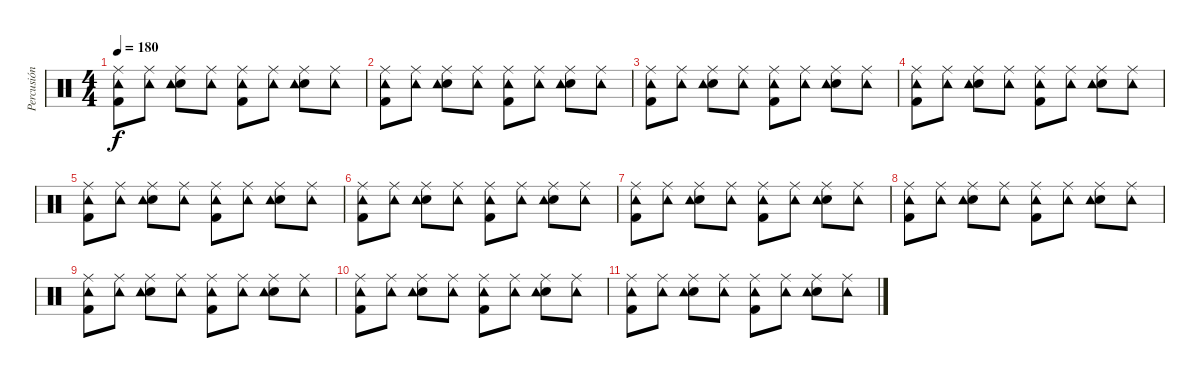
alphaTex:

\track ("Percusión" "Percusión") {instrument percussion}
\staff {score}
\articulation defaults
\ts (4 4)
\tempo 180
\clef neutral
\ks c
("Kick (hit) 2" "Ride (middle)" "Tambourine (hit)").8{dy f} ("Ride (middle)" "Tambourine (hit)").8 ("Electric Snare (hit)" "Ride (middle)" "Tambourine (hit)").8 ("Ride (middle)" "Tambourine (hit)").8 ("Kick (hit) 2" "Ride (middle)" "Tambourine (hit)").8 ("Ride (middle)" "Tambourine (hit)").8 ("Electric Snare (hit)" "Ride (middle)" "Tambourine (hit)").8 ("Ride (middle)" "Tambourine (hit)").8 |
("Kick (hit) 2" "Ride (middle)" "Tambourine (hit)").8 ("Ride (middle)" "Tambourine (hit)").8 ("Electric Snare (hit)" "Ride (middle)" "Tambourine (hit)").8 ("Ride (middle)" "Tambourine (hit)").8 ("Kick (hit) 2" "Ride (middle)" "Tambourine (hit)").8 ("Ride (middle)" "Tambourine (hit)").8 ("Electric Snare (hit)" "Ride (middle)" "Tambourine (hit)").8 ("Ride (middle)" "Tambourine (hit)").8 |
("Kick (hit) 2" "Ride (middle)" "Tambourine (hit)").8 ("Ride (middle)" "Tambourine (hit)").8 ("Electric Snare (hit)" "Ride (middle)" "Tambourine (hit)").8 ("Ride (middle)" "Tambourine (hit)").8 ("Kick (hit) 2" "Ride (middle)" "Tambourine (hit)").8 ("Ride (middle)" "Tambourine (hit)").8 ("Electric Snare (hit)" "Ride (middle)" "Tambourine (hit)").8 ("Ride (middle)" "Tambourine (hit)").8 |
("Kick (hit) 2" "Ride (middle)" "Tambourine (hit)").8 ("Ride (middle)" "Tambourine (hit)").8 ("Electric Snare (hit)" "Ride (middle)" "Tambourine (hit)").8 ("Ride (middle)" "Tambourine (hit)").8 ("Kick (hit) 2" "Ride (middle)" "Tambourine (hit)").8 ("Ride (middle)" "Tambourine (hit)").8 ("Electric Snare (hit)" "Ride (middle)" "Tambourine (hit)").8 ("Ride (middle)" "Tambourine (hit)").8 |
("Kick (hit) 2" "Ride (middle)" "Tambourine (hit)").8 ("Ride (middle)" "Tambourine (hit)").8 ("Electric Snare (hit)" "Ride (middle)" "Tambourine (hit)").8 ("Ride (middle)" "Tambourine (hit)").8 ("Kick (hit) 2" "Ride (middle)" "Tambourine (hit)").8 ("Ride (middle)" "Tambourine (hit)").8 ("Electric Snare (hit)" "Ride (middle)" "Tambourine (hit)").8 ("Ride (middle)" "Tambourine (hit)").8 |
("Kick (hit) 2" "Ride (middle)" "Tambourine (hit)").8 ("Ride (middle)" "Tambourine (hit)").8 ("Electric Snare (hit)" "Ride (middle)" "Tambourine (hit)").8 ("Ride (middle)" "Tambourine (hit)").8 ("Kick (hit) 2" "Ride (middle)" "Tambourine (hit)").8 ("Ride (middle)" "Tambourine (hit)").8 ("Electric Snare (hit)" "Ride (middle)" "Tambourine (hit)").8 ("Ride (middle)" "Tambourine (hit)").8 |
("Kick (hit) 2" "Ride (middle)" "Tambourine (hit)").8 ("Ride (middle)" "Tambourine (hit)").8 ("Electric Snare (hit)" "Ride (middle)" "Tambourine (hit)").8 ("Ride (middle)" "Tambourine (hit)").8 ("Kick (hit) 2" "Ride (middle)" "Tambourine (hit)").8 ("Ride (middle)" "Tambourine (hit)").8 ("Electric Snare (hit)" "Ride (middle)" "Tambourine (hit)").8 ("Ride (middle)" "Tambourine (hit)").8 |
("Kick (hit) 2" "Ride (middle)" "Tambourine (hit)").8 ("Ride (middle)" "Tambourine (hit)").8 ("Electric Snare (hit)" "Ride (middle)" "Tambourine (hit)").8 ("Ride (middle)" "Tambourine (hit)").8 ("Kick (hit) 2" "Ride (middle)" "Tambourine (hit)").8 ("Ride (middle)" "Tambourine (hit)").8 ("Electric Snare (hit)" "Ride (middle)" "Tambourine (hit)").8 ("Ride (middle)" "Tambourine (hit)").8 |
("Kick (hit) 2" "Ride (middle)" "Tambourine (hit)").8 ("Ride (middle)" "Tambourine (hit)").8 ("Electric Snare (hit)" "Ride (middle)" "Tambourine (hit)").8 ("Ride (middle)" "Tambourine (hit)").8 ("Kick (hit) 2" "Ride (middle)" "Tambourine (hit)").8 ("Ride (middle)" "Tambourine (hit)").8 ("Electric Snare (hit)" "Ride (middle)" "Tambourine (hit)").8 ("Ride (middle)" "Tambourine (hit)").8 |
("Kick (hit) 2" "Ride (middle)" "Tambourine (hit)").8 ("Ride (middle)" "Tambourine (hit)").8 ("Electric Snare (hit)" "Ride (middle)" "Tambourine (hit)").8 ("Ride (middle)" "Tambourine (hit)").8 ("Kick (hit) 2" "Ride (middle)" "Tambourine (hit)").8 ("Ride (middle)" "Tambourine (hit)").8 ("Electric Snare (hit)" "Ride (middle)" "Tambourine (hit)").8 ("Ride (middle)" "Tambourine (hit)").8 |
("Kick (hit) 2" "Ride (middle)" "Tambourine (hit)").8 ("Ride (middle)" "Tambourine (hit)").8 ("Electric Snare (hit)" "Ride (middle)" "Tambourine (hit)").8 ("Ride (middle)" "Tambourine (hit)").8 ("Kick (hit) 2" "Ride (middle)" "Tambourine (hit)").8 ("Ride (middle)" "Tambourine (hit)").8 ("Electric Snare (hit)" "Ride (middle)" "Tambourine (hit)").8 ("Ride (middle)" "Tambourine (hit)").8
